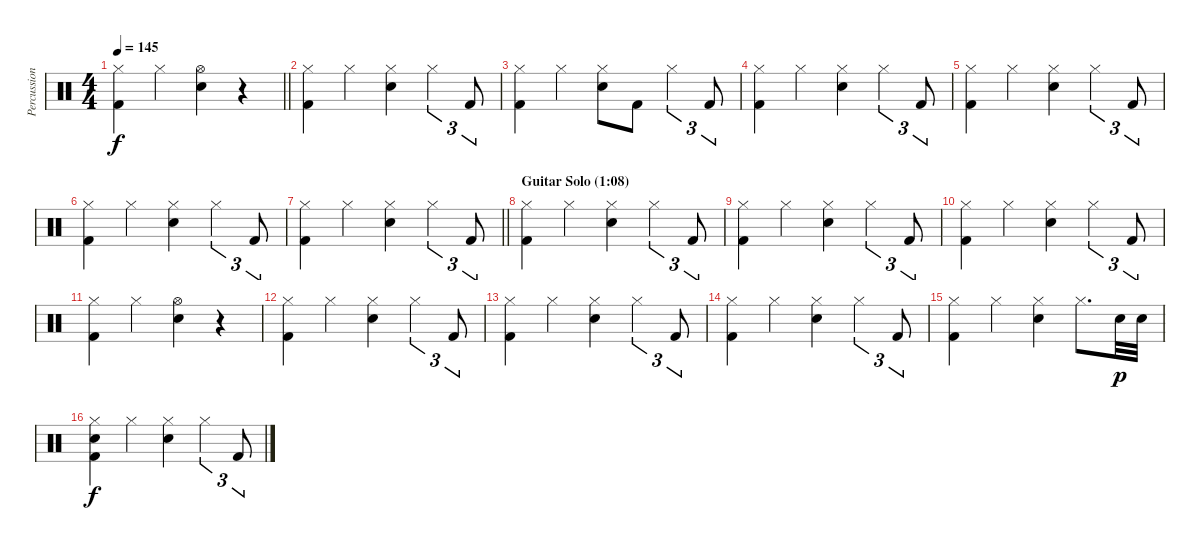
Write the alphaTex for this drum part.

\track ("Percussion" "Percussion") {instrument percussion}
\staff {score}
\articulation defaults
\ts (4 4)
\tempo 145
\clef neutral
\barLineRight lightlight
\ks c
("Hi-Hat (closed)" "Kick (hit) 2").4{dy f} "Hi-Hat (closed)".4 ("Hi-Hat (open)" "Electric Snare (hit)").4 r.4 |
("Hi-Hat (closed)" "Kick (hit) 2").4 "Hi-Hat (closed)".4 ("Hi-Hat (closed)" "Electric Snare (hit)").4 "Hi-Hat (closed)".4{tu (3 2)} "Kick (hit) 2".8{tu (3 2)} |
("Hi-Hat (closed)" "Kick (hit) 2").4 "Hi-Hat (closed)".4 ("Hi-Hat (closed)" "Electric Snare (hit)").8 "Kick (hit) 2".8 "Hi-Hat (closed)".4{tu (3 2)} "Kick (hit) 2".8{tu (3 2)} |
("Hi-Hat (closed)" "Kick (hit) 2").4 "Hi-Hat (closed)".4 ("Hi-Hat (closed)" "Electric Snare (hit)").4 "Hi-Hat (closed)".4{tu (3 2)} "Kick (hit) 2".8{tu (3 2)} |
("Hi-Hat (closed)" "Kick (hit) 2").4 "Hi-Hat (closed)".4 ("Hi-Hat (closed)" "Electric Snare (hit)").4 "Hi-Hat (closed)".4{tu (3 2)} "Kick (hit) 2".8{tu (3 2)} |
("Hi-Hat (closed)" "Kick (hit) 2").4 "Hi-Hat (closed)".4 ("Hi-Hat (closed)" "Electric Snare (hit)").4 "Hi-Hat (closed)".4{tu (3 2)} "Kick (hit) 2".8{tu (3 2)} |
\barLineRight lightlight
("Hi-Hat (closed)" "Kick (hit) 2").4 "Hi-Hat (closed)".4 ("Hi-Hat (closed)" "Electric Snare (hit)").4 "Hi-Hat (closed)".4{tu (3 2)} "Kick (hit) 2".8{tu (3 2)} |
\section ("" "Guitar Solo (1:08)")
("Hi-Hat (closed)" "Kick (hit) 2").4 "Hi-Hat (closed)".4 ("Hi-Hat (closed)" "Electric Snare (hit)").4 "Hi-Hat (closed)".4{tu (3 2)} "Kick (hit) 2".8{tu (3 2)} |
("Hi-Hat (closed)" "Kick (hit) 2").4 "Hi-Hat (closed)".4 ("Hi-Hat (closed)" "Electric Snare (hit)").4 "Hi-Hat (closed)".4{tu (3 2)} "Kick (hit) 2".8{tu (3 2)} |
("Hi-Hat (closed)" "Kick (hit) 2").4 "Hi-Hat (closed)".4 ("Hi-Hat (closed)" "Electric Snare (hit)").4 "Hi-Hat (closed)".4{tu (3 2)} "Kick (hit) 2".8{tu (3 2)} |
("Hi-Hat (closed)" "Kick (hit) 2").4 "Hi-Hat (closed)".4 ("Hi-Hat (open)" "Electric Snare (hit)").4 r.4 |
("Hi-Hat (closed)" "Kick (hit) 2").4 "Hi-Hat (closed)".4 ("Hi-Hat (closed)" "Electric Snare (hit)").4 "Hi-Hat (closed)".4{tu (3 2)} "Kick (hit) 2".8{tu (3 2)} |
("Hi-Hat (closed)" "Kick (hit) 2").4 "Hi-Hat (closed)".4 ("Hi-Hat (closed)" "Electric Snare (hit)").4 "Hi-Hat (closed)".4{tu (3 2)} "Kick (hit) 2".8{tu (3 2)} |
("Hi-Hat (closed)" "Kick (hit) 2").4 "Hi-Hat (closed)".4 ("Hi-Hat (closed)" "Electric Snare (hit)").4 "Hi-Hat (closed)".4{tu (3 2)} "Kick (hit) 2".8{tu (3 2)} |
("Hi-Hat (closed)" "Kick (hit) 2").4 "Hi-Hat (closed)".4 ("Hi-Hat (closed)" "Electric Snare (hit)").4 "Hi-Hat (closed)".8{d} "Electric Snare (hit)".32{dy p} "Electric Snare (hit)".32 |
("Hi-Hat (closed)" "Electric Snare (hit)" "Kick (hit) 2").4{dy f} "Hi-Hat (closed)".4 ("Hi-Hat (closed)" "Electric Snare (hit)").4 "Hi-Hat (closed)".4{tu (3 2)} "Kick (hit) 2".8{tu (3 2)}
